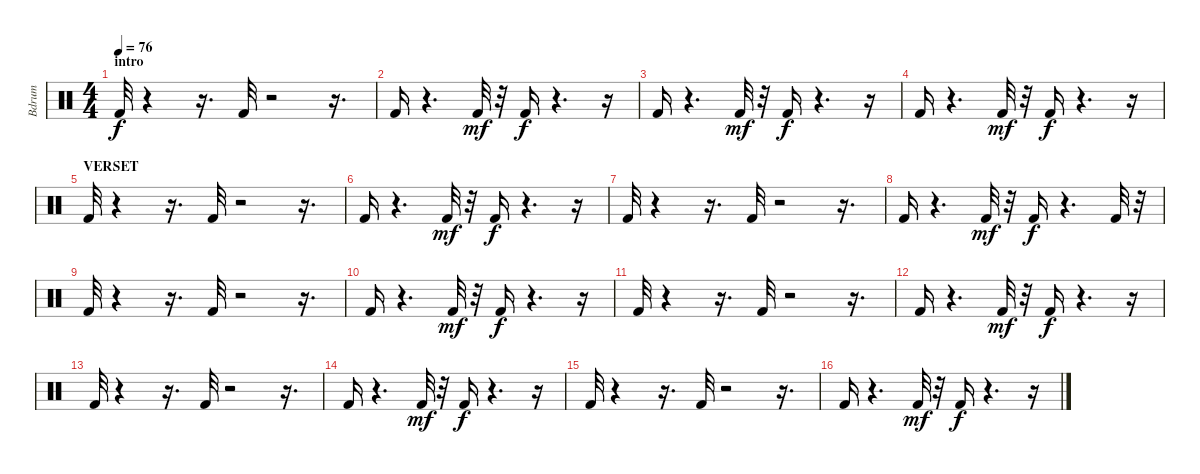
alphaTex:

\track ("Bdrum" "Bdrum") {instrument percussion}
\staff {score}
\articulation defaults
\ts (4 4)
\section ("" "intro")
\tempo 76
\clef neutral
\ks c "Kick (hit) 2".32{dy f}
r.4 r.16{d} "Kick (hit) 2".32 r.2 r.16{d} |
"Kick (hit) 2".16 r.4{d} "Kick (hit) 2".32{dy mf} r.32 "Kick (hit) 2".16{dy f} r.4{d} r.16 |
"Kick (hit) 2".16 r.4{d} "Kick (hit) 2".32{dy mf} r.32 "Kick (hit) 2".16{dy f} r.4{d} r.16 |
"Kick (hit) 2".16 r.4{d} "Kick (hit) 2".32{dy mf} r.32 "Kick (hit) 2".16{dy f} r.4{d} r.16 |
\section ("" "VERSET")
"Kick (hit) 2".32 r.4 r.16{d} "Kick (hit) 2".32 r.2 r.16{d} |
"Kick (hit) 2".16 r.4{d} "Kick (hit) 2".32{dy mf} r.32 "Kick (hit) 2".16{dy f} r.4{d} r.16 |
"Kick (hit) 2".32 r.4 r.16{d} "Kick (hit) 2".32 r.2 r.16{d} |
"Kick (hit) 2".16 r.4{d} "Kick (hit) 2".32{dy mf} r.32 "Kick (hit) 2".16{dy f} r.4{d} "Kick (hit) 2".32 r.32 |
"Kick (hit) 2".32 r.4 r.16{d} "Kick (hit) 2".32 r.2 r.16{d} |
"Kick (hit) 2".16 r.4{d} "Kick (hit) 2".32{dy mf} r.32 "Kick (hit) 2".16{dy f} r.4{d} r.16 |
"Kick (hit) 2".32 r.4 r.16{d} "Kick (hit) 2".32 r.2 r.16{d} |
"Kick (hit) 2".16 r.4{d} "Kick (hit) 2".32{dy mf} r.32 "Kick (hit) 2".16{dy f} r.4{d} r.16 |
"Kick (hit) 2".32 r.4 r.16{d} "Kick (hit) 2".32 r.2 r.16{d} |
"Kick (hit) 2".16 r.4{d} "Kick (hit) 2".32{dy mf} r.32 "Kick (hit) 2".16{dy f} r.4{d} r.16 |
"Kick (hit) 2".32 r.4 r.16{d} "Kick (hit) 2".32 r.2 r.16{d} |
"Kick (hit) 2".16 r.4{d} "Kick (hit) 2".32{dy mf} r.32 "Kick (hit) 2".16{dy f} r.4{d} r.16
